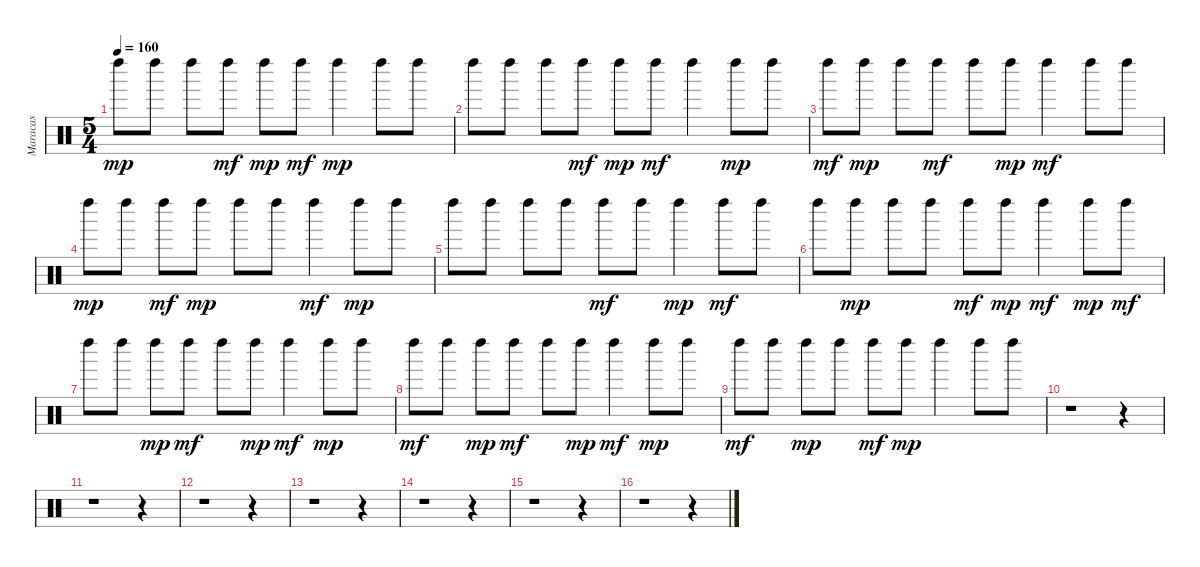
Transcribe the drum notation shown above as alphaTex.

\track ("Maracas" "Maracas") {instrument percussion}
\staff {score}
\articulation defaults
\ts (5 4)
\tempo 160
\clef neutral
\ks c "Left Maraca (hit)".8{dy mp} "Left Maraca (hit)".8 "Left Maraca (hit)".8 "Left Maraca (hit)".8{dy mf} "Left Maraca (hit)".8{dy mp} "Left Maraca (hit)".8{dy mf} "Left Maraca (hit)".4{dy mp} "Left Maraca (hit)".8 "Left Maraca (hit)".8
|
"Left Maraca (hit)".8 "Left Maraca (hit)".8 "Left Maraca (hit)".8 "Left Maraca (hit)".8{dy mf} "Left Maraca (hit)".8{dy mp} "Left Maraca (hit)".8{dy mf} "Left Maraca (hit)".4 "Left Maraca (hit)".8{dy mp} "Left Maraca (hit)".8 |
"Left Maraca (hit)".8{dy mf} "Left Maraca (hit)".8{dy mp} "Left Maraca (hit)".8 "Left Maraca (hit)".8{dy mf} "Left Maraca (hit)".8 "Left Maraca (hit)".8{dy mp} "Left Maraca (hit)".4{dy mf} "Left Maraca (hit)".8 "Left Maraca (hit)".8 |
"Left Maraca (hit)".8{dy mp} "Left Maraca (hit)".8 "Left Maraca (hit)".8{dy mf} "Left Maraca (hit)".8{dy mp} "Left Maraca (hit)".8 "Left Maraca (hit)".8 "Left Maraca (hit)".4{dy mf} "Left Maraca (hit)".8{dy mp} "Left Maraca (hit)".8 |
"Left Maraca (hit)".8 "Left Maraca (hit)".8 "Left Maraca (hit)".8 "Left Maraca (hit)".8 "Left Maraca (hit)".8{dy mf} "Left Maraca (hit)".8 "Left Maraca (hit)".4{dy mp} "Left Maraca (hit)".8{dy mf} "Left Maraca (hit)".8 |
"Left Maraca (hit)".8 "Left Maraca (hit)".8{dy mp} "Left Maraca (hit)".8 "Left Maraca (hit)".8 "Left Maraca (hit)".8{dy mf} "Left Maraca (hit)".8{dy mp} "Left Maraca (hit)".4{dy mf} "Left Maraca (hit)".8{dy mp} "Left Maraca (hit)".8{dy mf} |
"Left Maraca (hit)".8 "Left Maraca (hit)".8 "Left Maraca (hit)".8{dy mp} "Left Maraca (hit)".8{dy mf} "Left Maraca (hit)".8 "Left Maraca (hit)".8{dy mp} "Left Maraca (hit)".4{dy mf} "Left Maraca (hit)".8{dy mp} "Left Maraca (hit)".8 |
"Left Maraca (hit)".8{dy mf} "Left Maraca (hit)".8 "Left Maraca (hit)".8{dy mp} "Left Maraca (hit)".8{dy mf} "Left Maraca (hit)".8 "Left Maraca (hit)".8{dy mp} "Left Maraca (hit)".4{dy mf} "Left Maraca (hit)".8{dy mp} "Left Maraca (hit)".8 |
"Left Maraca (hit)".8{dy mf} "Left Maraca (hit)".8 "Left Maraca (hit)".8{dy mp} "Left Maraca (hit)".8 "Left Maraca (hit)".8{dy mf} "Left Maraca (hit)".8{dy mp} "Left Maraca (hit)".4 "Left Maraca (hit)".8 "Left Maraca (hit)".8 |
r.1 r.4 |
r.1 r.4 |
r.1 r.4 |
r.1 r.4 |
r.1 r.4 |
r.1 r.4 |
r.1 r.4
